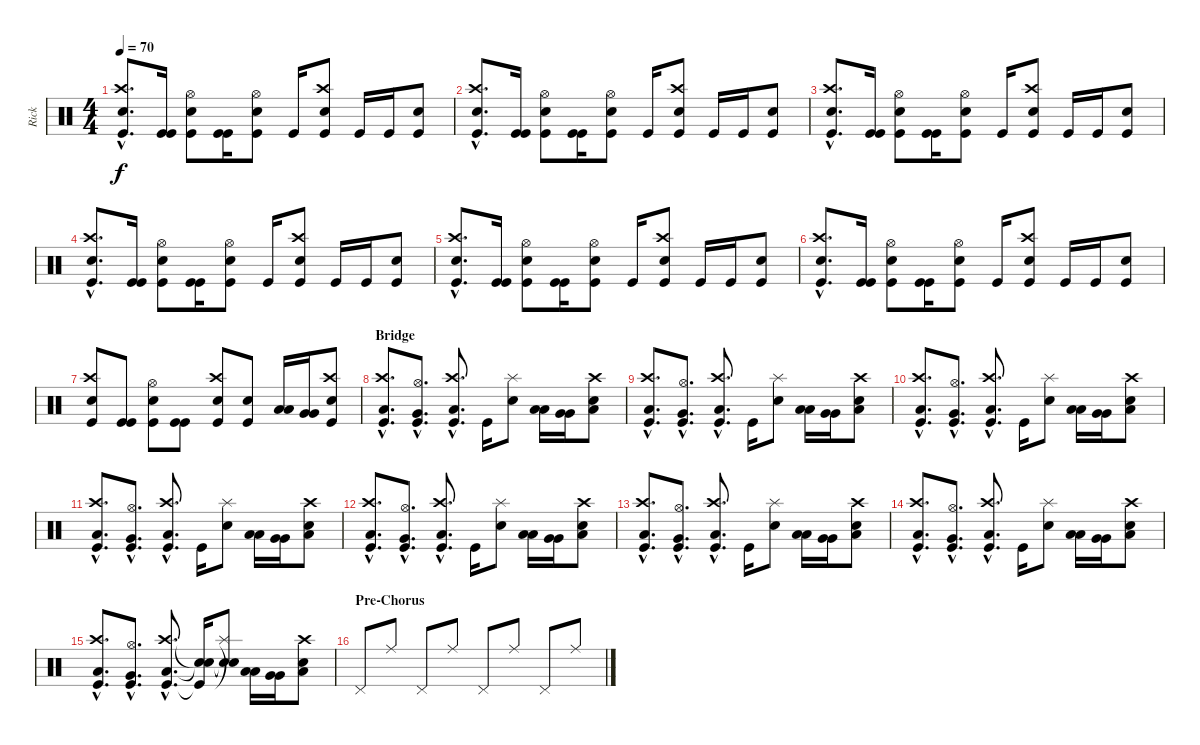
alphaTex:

\track ("Rick" "Rick") {instrument percussion}
\staff {score}
\articulation defaults
\ts (4 4)
\tempo 70
\clef neutral
\ks c
("Kick (hit)"{hac} "Crash high (hit)"{hac} "Electric Snare (hit)"{hac}).8{d dy f} ("Kick (hit)" "Kick (hit)").16 ("Kick (hit)" "Hi-Hat (open)" "Electric Snare (hit)").8 ("Kick (hit)" "Kick (hit)").16 ("Kick (hit)" "Hi-Hat (open)" "Electric Snare (hit)").8 "Kick (hit)".16 ("Kick (hit)" "Crash high (hit)" "Electric Snare (hit)").8 "Kick (hit)".16 "Kick (hit)".16 ("Kick (hit)" "Electric Snare (hit)").8 |
("Kick (hit)"{hac} "Crash high (hit)"{hac} "Electric Snare (hit)"{hac}).8{d} ("Kick (hit)" "Kick (hit)").16 ("Kick (hit)" "Hi-Hat (open)" "Electric Snare (hit)").8 ("Kick (hit)" "Kick (hit)").16 ("Kick (hit)" "Hi-Hat (open)" "Electric Snare (hit)").8 "Kick (hit)".16 ("Kick (hit)" "Crash high (hit)" "Electric Snare (hit)").8 "Kick (hit)".16 "Kick (hit)".16 ("Kick (hit)" "Electric Snare (hit)").8 |
("Kick (hit)"{hac} "Crash high (hit)"{hac} "Electric Snare (hit)"{hac}).8{d} ("Kick (hit)" "Kick (hit)").16 ("Kick (hit)" "Hi-Hat (open)" "Electric Snare (hit)").8 ("Kick (hit)" "Kick (hit)").16 ("Kick (hit)" "Hi-Hat (open)" "Electric Snare (hit)").8 "Kick (hit)".16 ("Kick (hit)" "Crash high (hit)" "Electric Snare (hit)").8 "Kick (hit)".16 "Kick (hit)".16 ("Kick (hit)" "Electric Snare (hit)").8 |
("Kick (hit)"{hac} "Crash high (hit)"{hac} "Electric Snare (hit)"{hac}).8{d} ("Kick (hit)" "Kick (hit)").16 ("Kick (hit)" "Hi-Hat (open)" "Electric Snare (hit)").8 ("Kick (hit)" "Kick (hit)").16 ("Kick (hit)" "Hi-Hat (open)" "Electric Snare (hit)").8 "Kick (hit)".16 ("Kick (hit)" "Crash high (hit)" "Electric Snare (hit)").8 "Kick (hit)".16 "Kick (hit)".16 ("Kick (hit)" "Electric Snare (hit)").8 |
("Kick (hit)"{hac} "Crash high (hit)"{hac} "Electric Snare (hit)"{hac}).8{d} ("Kick (hit)" "Kick (hit)").16 ("Kick (hit)" "Hi-Hat (open)" "Electric Snare (hit)").8 ("Kick (hit)" "Kick (hit)").16 ("Kick (hit)" "Hi-Hat (open)" "Electric Snare (hit)").8 "Kick (hit)".16 ("Kick (hit)" "Crash high (hit)" "Electric Snare (hit)").8 "Kick (hit)".16 "Kick (hit)".16 ("Kick (hit)" "Electric Snare (hit)").8 |
("Kick (hit)"{hac} "Crash high (hit)"{hac} "Electric Snare (hit)"{hac}).8{d} ("Kick (hit)" "Kick (hit)").16 ("Kick (hit)" "Hi-Hat (open)" "Electric Snare (hit)").8 ("Kick (hit)" "Kick (hit)").16 ("Kick (hit)" "Hi-Hat (open)" "Electric Snare (hit)").8 "Kick (hit)".16 ("Kick (hit)" "Crash high (hit)" "Electric Snare (hit)").8 "Kick (hit)".16 "Kick (hit)".16 ("Kick (hit)" "Electric Snare (hit)").8 |
("Kick (hit)" "Crash high (hit)" "Electric Snare (hit)").8 ("Kick (hit)" "Kick (hit)").8 ("Kick (hit)" "Hi-Hat (open)" "Electric Snare (hit)").8 ("Kick (hit)" "Kick (hit)").8 ("Kick (hit)" "Crash high (hit)" "Electric Snare (hit)").8 ("Kick (hit)" "Electric Snare (hit)").8 ("Low Tom (hit)" "Low Tom (hit)").16 ("Very Low Tom (hit)" "Very Low Tom (hit)").16 ("Kick (hit)" "Electric Snare (hit)" "Crash high (hit)").8 |
\section ("" "Bridge")
("Kick (hit)"{hac} "Low Tom (hit)"{hac} "Crash high (hit)"{hac}).8{d} ("Kick (hit)"{hac} "Very Low Tom (hit)"{hac} "Hi-Hat (open)"{hac}).8{d} ("Kick (hit)"{hac} "Low Floor Tom (hit)"{hac} "Crash high (hit)"{hac}).8{d} "Kick (hit)".16 ("Splash (hit)" "Electric Snare (hit)").8 ("Low Tom (hit)" "Low Tom (hit)").16 ("Very Low Tom (hit)" "Very Low Tom (hit)").16 ("Low Floor Tom (hit)" "Electric Snare (hit)" "Crash high (hit)").8 |
("Kick (hit)"{hac} "Low Tom (hit)"{hac} "Crash high (hit)"{hac}).8{d} ("Kick (hit)"{hac} "Very Low Tom (hit)"{hac} "Hi-Hat (open)"{hac}).8{d} ("Kick (hit)"{hac} "Low Floor Tom (hit)"{hac} "Crash high (hit)"{hac}).8{d} "Kick (hit)".16 ("Splash (hit)" "Electric Snare (hit)").8 ("Low Tom (hit)" "Low Tom (hit)").16 ("Very Low Tom (hit)" "Very Low Tom (hit)").16 ("Low Floor Tom (hit)" "Electric Snare (hit)" "Crash high (hit)").8 |
("Kick (hit)"{hac} "Low Tom (hit)"{hac} "Crash high (hit)"{hac}).8{d} ("Kick (hit)"{hac} "Very Low Tom (hit)"{hac} "Hi-Hat (open)"{hac}).8{d} ("Kick (hit)"{hac} "Low Floor Tom (hit)"{hac} "Crash high (hit)"{hac}).8{d} "Kick (hit)".16 ("Splash (hit)" "Electric Snare (hit)").8 ("Low Tom (hit)" "Low Tom (hit)").16 ("Very Low Tom (hit)" "Very Low Tom (hit)").16 ("Low Floor Tom (hit)" "Electric Snare (hit)" "Crash high (hit)").8 |
("Kick (hit)"{hac} "Low Tom (hit)"{hac} "Crash high (hit)"{hac}).8{d} ("Kick (hit)"{hac} "Very Low Tom (hit)"{hac} "Hi-Hat (open)"{hac}).8{d} ("Kick (hit)"{hac} "Low Floor Tom (hit)"{hac} "Crash high (hit)"{hac}).8{d} "Kick (hit)".16 ("Splash (hit)" "Electric Snare (hit)").8 ("Low Tom (hit)" "Low Tom (hit)").16 ("Very Low Tom (hit)" "Very Low Tom (hit)").16 ("Low Floor Tom (hit)" "Electric Snare (hit)" "Crash high (hit)").8 |
("Kick (hit)"{hac} "Low Tom (hit)"{hac} "Crash high (hit)"{hac}).8{d} ("Kick (hit)"{hac} "Very Low Tom (hit)"{hac} "Hi-Hat (open)"{hac}).8{d} ("Kick (hit)"{hac} "Low Floor Tom (hit)"{hac} "Crash high (hit)"{hac}).8{d} "Kick (hit)".16 ("Splash (hit)" "Electric Snare (hit)").8 ("Low Tom (hit)" "Low Tom (hit)").16 ("Very Low Tom (hit)" "Very Low Tom (hit)").16 ("Low Floor Tom (hit)" "Electric Snare (hit)" "Crash high (hit)").8 |
("Kick (hit)"{hac} "Low Tom (hit)"{hac} "Crash high (hit)"{hac}).8{d} ("Kick (hit)"{hac} "Very Low Tom (hit)"{hac} "Hi-Hat (open)"{hac}).8{d} ("Kick (hit)"{hac} "Low Floor Tom (hit)"{hac} "Crash high (hit)"{hac}).8{d} "Kick (hit)".16 ("Splash (hit)" "Electric Snare (hit)").8 ("Low Tom (hit)" "Low Tom (hit)").16 ("Very Low Tom (hit)" "Very Low Tom (hit)").16 ("Low Floor Tom (hit)" "Electric Snare (hit)" "Crash high (hit)").8 |
("Kick (hit)"{hac} "Low Tom (hit)"{hac} "Crash high (hit)"{hac}).8{d} ("Kick (hit)"{hac} "Very Low Tom (hit)"{hac} "Hi-Hat (open)"{hac}).8{d} ("Kick (hit)"{hac} "Low Floor Tom (hit)"{hac} "Crash high (hit)"{hac}).8{d} "Kick (hit)".16 ("Splash (hit)" "Electric Snare (hit)").8 ("Low Tom (hit)" "Low Tom (hit)").16 ("Very Low Tom (hit)" "Very Low Tom (hit)").16 ("Low Floor Tom (hit)" "Electric Snare (hit)" "Crash high (hit)").8 |
("Kick (hit)"{hac} "Low Tom (hit)"{hac} "Crash high (hit)"{hac}).8{d} ("Kick (hit)"{hac} "Very Low Tom (hit)"{hac} "Hi-Hat (open)"{hac}).8{d} ("Kick (hit)"{hac} "Low Floor Tom (hit)"{hac} "Crash high (hit)"{hac}).8{d} ("Kick (hit)"{t} "Snare (hit)"{t} "Snare (hit)"{t}).16 ("Splash (hit)"{t} "Electric Snare (hit)"{t} "Snare (hit)"{t}).8 ("Low Tom (hit)" "Low Tom (hit)").16 ("Very Low Tom (hit)" "Very Low Tom (hit)").16 ("Low Floor Tom (hit)" "Electric Snare (hit)" "Crash high (hit)").8 |
\section ("" "Pre-Chorus")
"Pedal Hi-Hat (hit)".8 "Ride (middle)".8 "Pedal Hi-Hat (hit)".8 "Ride (middle)".8 "Pedal Hi-Hat (hit)".8 "Ride (middle)".8 "Pedal Hi-Hat (hit)".8 "Ride (middle)".8
